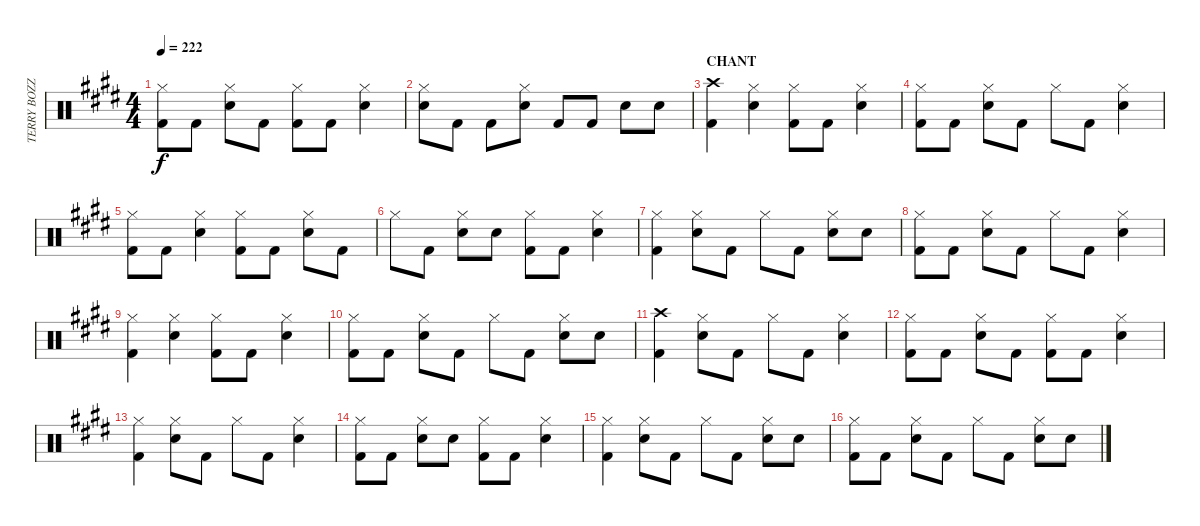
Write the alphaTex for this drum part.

\track ("TERRY BOZZIO" "TERRY BOZZ") {instrument percussion}
\staff {score}
\articulation defaults
\ts (4 4)
\tempo 222
\clef neutral
\ks c#minor
("Hi-Hat (closed)" "Kick (hit) 2").8{dy f} "Kick (hit) 2".8 ("Hi-Hat (closed)" "Snare (hit) 2").8 "Kick (hit) 2".8 ("Hi-Hat (closed)" "Kick (hit) 2").8 "Kick (hit) 2".8 ("Hi-Hat (closed)" "Snare (hit) 2").4 |
("Hi-Hat (closed)" "Snare (hit) 2").8 "Kick (hit) 2".8 "Kick (hit) 2".8 ("Hi-Hat (closed)" "Snare (hit) 2").8 "Kick (hit) 2".8 "Kick (hit) 2".8 "Snare (hit) 2".8 "Snare (hit) 2".8 |
\section ("" "CHANT")
("Crash high (hit)" "Kick (hit) 2").4 ("Hi-Hat (closed)" "Snare (hit) 2").4 ("Hi-Hat (closed)" "Kick (hit) 2").8 "Kick (hit) 2".8 ("Hi-Hat (closed)" "Snare (hit) 2").4 |
("Hi-Hat (closed)" "Kick (hit) 2").8 "Kick (hit) 2".8 ("Hi-Hat (closed)" "Snare (hit) 2").8 "Kick (hit) 2".8 "Hi-Hat (closed)".8 "Kick (hit) 2".8 ("Hi-Hat (closed)" "Snare (hit) 2").4 |
("Hi-Hat (closed)" "Kick (hit) 2").8 "Kick (hit) 2".8 ("Hi-Hat (closed)" "Snare (hit) 2").4 ("Hi-Hat (closed)" "Kick (hit) 2").8 "Kick (hit) 2".8 ("Hi-Hat (closed)" "Snare (hit) 2").8 "Kick (hit) 2".8 |
"Hi-Hat (closed)".8 "Kick (hit) 2".8 ("Hi-Hat (closed)" "Snare (hit) 2").8 "Snare (hit) 2".8 ("Hi-Hat (closed)" "Kick (hit) 2").8 "Kick (hit) 2".8 ("Hi-Hat (closed)" "Snare (hit) 2").4 |
("Hi-Hat (closed)" "Kick (hit) 2").4 ("Hi-Hat (closed)" "Snare (hit) 2").8 "Kick (hit) 2".8 "Hi-Hat (closed)".8 "Kick (hit) 2".8 ("Hi-Hat (closed)" "Snare (hit) 2").8 "Snare (hit) 2".8 |
("Hi-Hat (closed)" "Kick (hit) 2").8 "Kick (hit) 2".8 ("Hi-Hat (closed)" "Snare (hit) 2").8 "Kick (hit) 2".8 "Hi-Hat (closed)".8 "Kick (hit) 2".8 ("Hi-Hat (closed)" "Snare (hit) 2").4 |
("Hi-Hat (closed)" "Kick (hit) 2").4 ("Hi-Hat (closed)" "Snare (hit) 2").4 ("Hi-Hat (closed)" "Kick (hit) 2").8 "Kick (hit) 2".8 ("Hi-Hat (closed)" "Snare (hit) 2").4 |
("Hi-Hat (closed)" "Kick (hit) 2").8 "Kick (hit) 2".8 ("Hi-Hat (closed)" "Snare (hit) 2").8 "Kick (hit) 2".8 "Hi-Hat (closed)".8 "Kick (hit) 2".8 ("Hi-Hat (closed)" "Snare (hit) 2").8 "Snare (hit) 2".8 |
("Crash high (hit)" "Kick (hit) 2").4 ("Hi-Hat (closed)" "Snare (hit) 2").8 "Kick (hit) 2".8 "Hi-Hat (closed)".8 "Kick (hit) 2".8 ("Hi-Hat (closed)" "Snare (hit) 2").4 |
("Hi-Hat (closed)" "Kick (hit) 2").8 "Kick (hit) 2".8 ("Hi-Hat (closed)" "Snare (hit) 2").8 "Kick (hit) 2".8 ("Hi-Hat (closed)" "Kick (hit) 2").8 "Kick (hit) 2".8 ("Hi-Hat (closed)" "Snare (hit) 2").4 |
("Hi-Hat (closed)" "Kick (hit) 2").4 ("Hi-Hat (closed)" "Snare (hit) 2").8 "Kick (hit) 2".8 "Hi-Hat (closed)".8 "Kick (hit) 2".8 ("Hi-Hat (closed)" "Snare (hit) 2").4 |
("Hi-Hat (closed)" "Kick (hit) 2").8 "Kick (hit) 2".8 ("Hi-Hat (closed)" "Snare (hit) 2").8 "Snare (hit) 2".8 ("Hi-Hat (closed)" "Kick (hit) 2").8 "Kick (hit) 2".8 ("Hi-Hat (closed)" "Snare (hit) 2").4 |
("Hi-Hat (closed)" "Kick (hit) 2").4 ("Hi-Hat (closed)" "Snare (hit) 2").8 "Kick (hit) 2".8 "Hi-Hat (closed)".8 "Kick (hit) 2".8 ("Hi-Hat (closed)" "Snare (hit) 2").8 "Snare (hit) 2".8 |
("Hi-Hat (closed)" "Kick (hit) 2").8 "Kick (hit) 2".8 ("Hi-Hat (closed)" "Snare (hit) 2").8 "Kick (hit) 2".8 "Hi-Hat (closed)".8 "Kick (hit) 2".8 ("Hi-Hat (closed)" "Snare (hit) 2").8 "Snare (hit) 2".8
